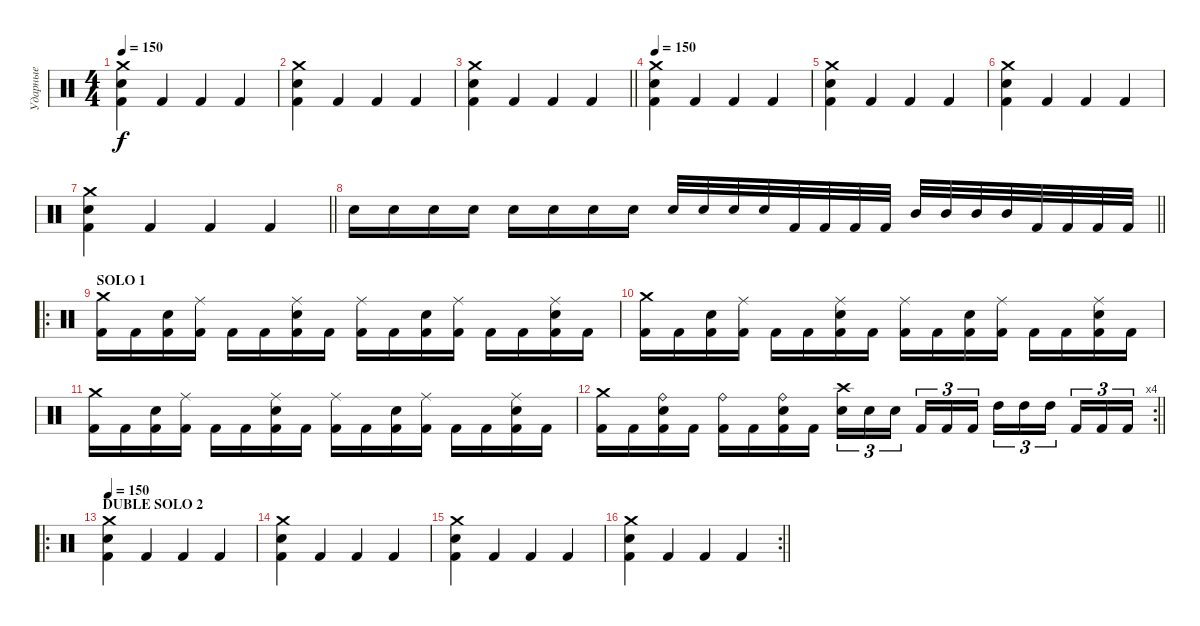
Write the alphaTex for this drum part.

\track ("Ударные" "Ударные") {instrument percussion}
\staff {score}
\articulation defaults
\ts (4 4)
\tempo 150
\clef neutral
\ks c
("Kick (hit) 2" "Snare (hit) 2" "Crash medium (hit)").4{dy f} "Kick (hit) 2".4 "Kick (hit) 2".4 "Kick (hit) 2".4 |
("Kick (hit) 2" "Snare (hit) 2" "Crash medium (hit)").4 "Kick (hit) 2".4 "Kick (hit) 2".4 "Kick (hit) 2".4 |
\barLineRight lightlight
("Kick (hit) 2" "Snare (hit) 2" "Crash medium (hit)").4 "Kick (hit) 2".4 "Kick (hit) 2".4 "Kick (hit) 2".4 |
\tempo 150
("Kick (hit) 2" "Snare (hit) 2" "Crash medium (hit)").4 "Kick (hit) 2".4 "Kick (hit) 2".4 "Kick (hit) 2".4 |
("Kick (hit) 2" "Snare (hit) 2" "Crash medium (hit)").4 "Kick (hit) 2".4 "Kick (hit) 2".4 "Kick (hit) 2".4 |
("Kick (hit) 2" "Snare (hit) 2" "Crash medium (hit)").4 "Kick (hit) 2".4 "Kick (hit) 2".4 "Kick (hit) 2".4 |
\barLineRight lightlight
("Kick (hit) 2" "Snare (hit) 2" "Crash medium (hit)").4 "Kick (hit) 2".4 "Kick (hit) 2".4 "Kick (hit) 2".4 |
\barLineRight lightlight "Snare (hit) 2".16 "Snare (hit) 2".16 "Snare (hit) 2".16 "Snare (hit) 2".16 "Snare (hit) 2".16 "Snare (hit) 2".16 "Snare (hit) 2".16 "Snare (hit) 2".16 "Snare (hit) 2".32 "Snare (hit) 2".32 "Snare (hit) 2".32 "Snare (hit) 2".32 "Kick (hit) 2".32 "Kick (hit) 2".32 "Kick (hit) 2".32 "Kick (hit) 2".32 "Mid Tom (hit)".32 "Mid Tom (hit)".32 "Mid Tom (hit)".32 "Mid Tom (hit)".32 "Kick (hit) 2".32 "Kick (hit) 2".32 "Kick (hit) 2".32 "Kick (hit) 2".32
|
\ro
\section ("" "SOLO 1")
("Kick (hit) 2" "Crash medium (hit)").16 "Kick (hit) 2".16 ("Kick (hit) 2" "Snare (hit) 2").16 ("Kick (hit) 2" "Ride (middle)").16 "Kick (hit) 2".16 "Kick (hit) 2".16 ("Kick (hit) 2" "Snare (hit) 2" "Ride (middle)").16 "Kick (hit) 2".16 ("Kick (hit) 2" "Ride (middle)").16 "Kick (hit) 2".16 ("Kick (hit) 2" "Snare (hit) 2").16 ("Kick (hit) 2" "Ride (middle)").16 "Kick (hit) 2".16 "Kick (hit) 2".16 ("Kick (hit) 2" "Snare (hit) 2" "Ride (middle)").16 "Kick (hit) 2".16 |
("Kick (hit) 2" "Crash medium (hit)").16 "Kick (hit) 2".16 ("Kick (hit) 2" "Snare (hit) 2").16 ("Kick (hit) 2" "Ride (middle)").16 "Kick (hit) 2".16 "Kick (hit) 2".16 ("Kick (hit) 2" "Snare (hit) 2" "Ride (middle)").16 "Kick (hit) 2".16 ("Kick (hit) 2" "Ride (middle)").16 "Kick (hit) 2".16 ("Kick (hit) 2" "Snare (hit) 2").16 ("Kick (hit) 2" "Ride (middle)").16 "Kick (hit) 2".16 "Kick (hit) 2".16 ("Kick (hit) 2" "Snare (hit) 2" "Ride (middle)").16 "Kick (hit) 2".16 |
("Kick (hit) 2" "Crash medium (hit)").16 "Kick (hit) 2".16 ("Kick (hit) 2" "Snare (hit) 2").16 ("Kick (hit) 2" "Ride (middle)").16 "Kick (hit) 2".16 "Kick (hit) 2".16 ("Kick (hit) 2" "Snare (hit) 2" "Ride (middle)").16 "Kick (hit) 2".16 ("Kick (hit) 2" "Ride (middle)").16 "Kick (hit) 2".16 ("Kick (hit) 2" "Snare (hit) 2").16 ("Kick (hit) 2" "Ride (middle)").16 "Kick (hit) 2".16 "Kick (hit) 2".16 ("Kick (hit) 2" "Snare (hit) 2" "Ride (middle)").16 "Kick (hit) 2".16 |
\rc 4
\barLineRight lightlight
("Kick (hit) 2" "Crash medium (hit)").16 "Kick (hit) 2".16 ("Kick (hit) 2" "Snare (hit) 2" "Ride (bell)").16 "Kick (hit) 2".16 ("Kick (hit) 2" "Ride (bell)").16 "Kick (hit) 2".16 ("Kick (hit) 2" "Snare (hit) 2" "Ride (bell)").16 "Kick (hit) 2".16 ("Snare (hit) 2" "Crash high (hit)").16{tu (3 2)} "Snare (hit) 2".16{tu (3 2)} "Snare (hit) 2".16{tu (3 2)} "Kick (hit) 2".16{tu (3 2)} "Kick (hit) 2".16{tu (3 2)} "Kick (hit) 2".16{tu (3 2)} "High Tom (hit)".16{tu (3 2)} "High Tom (hit)".16{tu (3 2)} "High Tom (hit)".16{tu (3 2)} "Kick (hit) 2".16{tu (3 2)} "Kick (hit) 2".16{tu (3 2)} "Kick (hit) 2".16{tu (3 2)} |
\ro
\section ("" "DUBLE SOLO 2")
\tempo 150
("Kick (hit) 2" "Snare (hit) 2" "Crash medium (hit)").4 "Kick (hit) 2".4 "Kick (hit) 2".4 "Kick (hit) 2".4 |
("Kick (hit) 2" "Snare (hit) 2" "Crash medium (hit)").4 "Kick (hit) 2".4 "Kick (hit) 2".4 "Kick (hit) 2".4 |
("Kick (hit) 2" "Snare (hit) 2" "Crash medium (hit)").4 "Kick (hit) 2".4 "Kick (hit) 2".4 "Kick (hit) 2".4 |
\rc 2
\barLineRight lightlight
("Kick (hit) 2" "Snare (hit) 2" "Crash medium (hit)").4 "Kick (hit) 2".4 "Kick (hit) 2".4 "Kick (hit) 2".4
